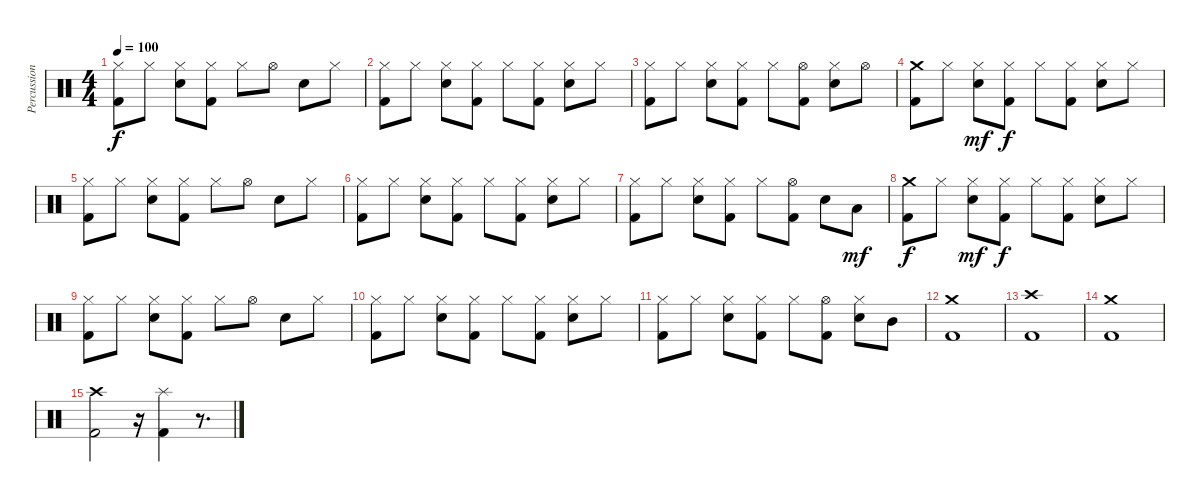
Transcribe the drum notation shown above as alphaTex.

\track ("Percussion" "Percussion") {instrument percussion}
\staff {score}
\articulation defaults
\ts (4 4)
\tempo 100
\clef neutral
\ks c
("Hi-Hat (closed)" "Kick (hit) 2").8{dy f} "Hi-Hat (closed)".8 ("Hi-Hat (closed)" "Electric Snare (hit)").8 ("Hi-Hat (closed)" "Kick (hit) 2").8 "Hi-Hat (closed)".8 "Hi-Hat (open)".8 "Electric Snare (hit)".8 "Hi-Hat (closed)".8 |
("Hi-Hat (closed)" "Kick (hit) 2").8 "Hi-Hat (closed)".8 ("Hi-Hat (closed)" "Electric Snare (hit)").8 ("Hi-Hat (closed)" "Kick (hit) 2").8 "Hi-Hat (closed)".8 ("Hi-Hat (closed)" "Kick (hit) 2").8 ("Hi-Hat (closed)" "Electric Snare (hit)").8 "Hi-Hat (closed)".8 |
("Hi-Hat (closed)" "Kick (hit) 2").8 "Hi-Hat (closed)".8 ("Hi-Hat (closed)" "Electric Snare (hit)").8 ("Hi-Hat (closed)" "Kick (hit) 2").8 "Hi-Hat (closed)".8 ("Hi-Hat (open)" "Kick (hit) 2").8 ("Hi-Hat (closed)" "Electric Snare (hit)").8 "Hi-Hat (open)".8 |
("Crash medium (hit)" "Kick (hit) 2").8 "Hi-Hat (closed)".8 ("Hi-Hat (closed)" "Electric Snare (hit)").8{dy mf} ("Hi-Hat (closed)" "Kick (hit) 2").8{dy f} "Hi-Hat (closed)".8 ("Hi-Hat (closed)" "Kick (hit) 2").8 ("Hi-Hat (closed)" "Electric Snare (hit)").8 "Hi-Hat (closed)".8 |
("Hi-Hat (closed)" "Kick (hit) 2").8 "Hi-Hat (closed)".8 ("Hi-Hat (closed)" "Electric Snare (hit)").8 ("Hi-Hat (closed)" "Kick (hit) 2").8 "Hi-Hat (closed)".8 "Hi-Hat (open)".8 "Electric Snare (hit)".8 "Hi-Hat (closed)".8 |
("Hi-Hat (closed)" "Kick (hit) 2").8 "Hi-Hat (closed)".8 ("Hi-Hat (closed)" "Electric Snare (hit)").8 ("Hi-Hat (closed)" "Kick (hit) 2").8 "Hi-Hat (closed)".8 ("Hi-Hat (closed)" "Kick (hit) 2").8 ("Hi-Hat (closed)" "Electric Snare (hit)").8 "Hi-Hat (closed)".8 |
("Hi-Hat (closed)" "Kick (hit) 2").8 "Hi-Hat (closed)".8 ("Hi-Hat (closed)" "Electric Snare (hit)").8 ("Hi-Hat (closed)" "Kick (hit) 2").8 "Hi-Hat (closed)".8 ("Hi-Hat (open)" "Kick (hit) 2").8 "Electric Snare (hit)".8 "Low Floor Tom (hit)".8{dy mf} |
("Crash medium (hit)" "Kick (hit) 2").8{dy f} "Hi-Hat (closed)".8 ("Hi-Hat (closed)" "Electric Snare (hit)").8{dy mf} ("Hi-Hat (closed)" "Kick (hit) 2").8{dy f} "Hi-Hat (closed)".8 ("Hi-Hat (closed)" "Kick (hit) 2").8 ("Hi-Hat (closed)" "Electric Snare (hit)").8 "Hi-Hat (closed)".8 |
("Hi-Hat (closed)" "Kick (hit) 2").8 "Hi-Hat (closed)".8 ("Hi-Hat (closed)" "Electric Snare (hit)").8 ("Hi-Hat (closed)" "Kick (hit) 2").8 "Hi-Hat (closed)".8 "Hi-Hat (open)".8 "Electric Snare (hit)".8 "Hi-Hat (closed)".8 |
("Hi-Hat (closed)" "Kick (hit) 2").8 "Hi-Hat (closed)".8 ("Hi-Hat (closed)" "Electric Snare (hit)").8 ("Hi-Hat (closed)" "Kick (hit) 2").8 "Hi-Hat (closed)".8 ("Hi-Hat (closed)" "Kick (hit) 2").8 ("Hi-Hat (closed)" "Electric Snare (hit)").8 "Hi-Hat (closed)".8 |
("Hi-Hat (closed)" "Kick (hit) 2").8 "Hi-Hat (closed)".8 ("Hi-Hat (closed)" "Electric Snare (hit)").8 ("Hi-Hat (closed)" "Kick (hit) 2").8 "Hi-Hat (closed)".8 ("Hi-Hat (open)" "Kick (hit) 2").8 ("Hi-Hat (closed)" "Electric Snare (hit)").8 "Mid Tom (hit)".8 |
("Crash medium (hit)" "Kick (hit) 2").1 |
("Crash high (hit)" "Kick (hit) 2").1 |
("Crash medium (hit)" "Kick (hit) 2").1 |
("Crash high (hit)" "Kick (hit) 2").2 r.16 ("Splash (hit)" "Kick (hit) 2").4 r.8{d}
